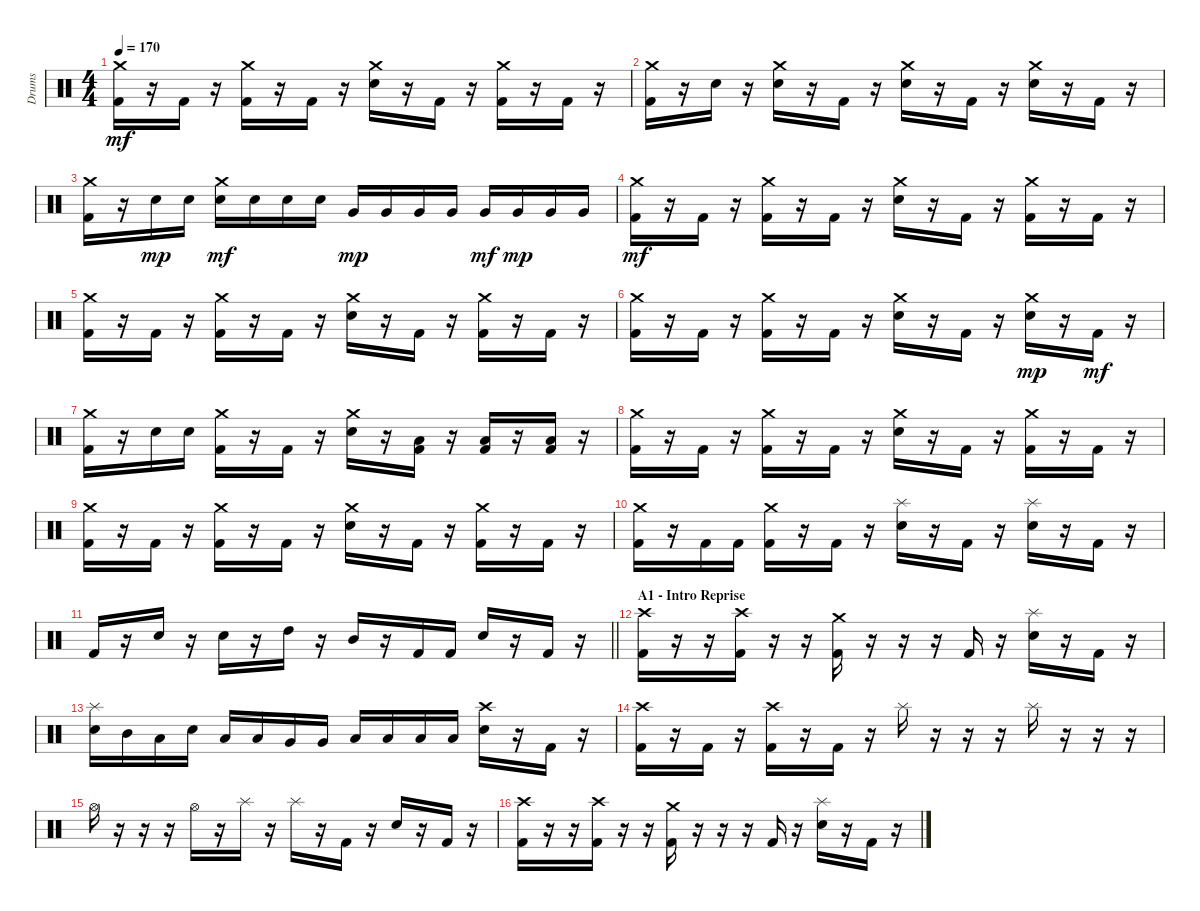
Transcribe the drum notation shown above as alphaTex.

\track ("Drums" "Drums") {instrument percussion}
\staff {score}
\articulation defaults
\ts (4 4)
\tempo 170
\clef neutral
\ks c
("Crash medium (hit)" "Kick (hit) 2").16{dy mf} r.16 "Kick (hit) 2".16 r.16 ("Crash medium (hit)" "Kick (hit) 2").16 r.16 "Kick (hit) 2".16 r.16 ("Crash medium (hit)" "Electric Snare (hit)").16 r.16 "Kick (hit) 2".16 r.16 ("Crash medium (hit)" "Kick (hit) 2").16 r.16 "Kick (hit) 2".16 r.16 |
("Crash medium (hit)" "Kick (hit) 2").16 r.16 "Electric Snare (hit)".16 r.16 ("Crash medium (hit)" "Electric Snare (hit)").16 r.16 "Kick (hit) 2".16 r.16 ("Crash medium (hit)" "Electric Snare (hit)").16 r.16 "Kick (hit) 2".16 r.16 ("Crash medium (hit)" "Electric Snare (hit)").16 r.16 "Kick (hit) 2".16 r.16 |
("Crash medium (hit)" "Kick (hit) 2").16 r.16 "Electric Snare (hit)".16{dy mp} "Electric Snare (hit)".16 ("Crash medium (hit)" "Electric Snare (hit)").16{dy mf} "Electric Snare (hit)".16 "Electric Snare (hit)".16 "Electric Snare (hit)".16 "Very Low Tom (hit)".16{dy mp} "Very Low Tom (hit)".16 "Very Low Tom (hit)".16 "Very Low Tom (hit)".16 "Very Low Tom (hit)".16{dy mf} "Very Low Tom (hit)".16{dy mp} "Very Low Tom (hit)".16 "Very Low Tom (hit)".16 |
("Crash medium (hit)" "Kick (hit) 2").16{dy mf} r.16 "Kick (hit) 2".16 r.16 ("Crash medium (hit)" "Kick (hit) 2").16 r.16 "Kick (hit) 2".16 r.16 ("Crash medium (hit)" "Electric Snare (hit)").16 r.16 "Kick (hit) 2".16 r.16 ("Crash medium (hit)" "Kick (hit) 2").16 r.16 "Kick (hit) 2".16 r.16 |
("Crash medium (hit)" "Kick (hit) 2").16 r.16 "Kick (hit) 2".16 r.16 ("Crash medium (hit)" "Kick (hit) 2").16 r.16 "Kick (hit) 2".16 r.16 ("Crash medium (hit)" "Electric Snare (hit)").16 r.16 "Kick (hit) 2".16 r.16 ("Crash medium (hit)" "Kick (hit) 2").16 r.16 "Kick (hit) 2".16 r.16 |
("Crash medium (hit)" "Kick (hit) 2").16 r.16 "Kick (hit) 2".16 r.16 ("Crash medium (hit)" "Kick (hit) 2").16 r.16 "Kick (hit) 2".16 r.16 ("Crash medium (hit)" "Electric Snare (hit)").16 r.16 "Kick (hit) 2".16 r.16 ("Crash medium (hit)" "Electric Snare (hit)").16{dy mp} r.16 "Kick (hit) 2".16{dy mf} r.16 |
("Crash medium (hit)" "Kick (hit) 2").16 r.16 "Electric Snare (hit)".16 "Electric Snare (hit)".16 ("Crash medium (hit)" "Kick (hit) 2").16 r.16 "Kick (hit) 2".16 r.16 ("Crash medium (hit)" "Electric Snare (hit)").16 r.16 ("Low Floor Tom (hit)" "Kick (hit) 2").16 r.16 ("Low Floor Tom (hit)" "Kick (hit) 2").16 r.16 ("Low Floor Tom (hit)" "Kick (hit) 2").16 r.16 |
("Crash medium (hit)" "Kick (hit) 2").16 r.16 "Kick (hit) 2".16 r.16 ("Crash medium (hit)" "Kick (hit) 2").16 r.16 "Kick (hit) 2".16 r.16 ("Crash medium (hit)" "Electric Snare (hit)").16 r.16 "Kick (hit) 2".16 r.16 ("Crash medium (hit)" "Kick (hit) 2").16 r.16 "Kick (hit) 2".16 r.16 |
("Crash medium (hit)" "Kick (hit) 2").16 r.16 "Kick (hit) 2".16 r.16 ("Crash medium (hit)" "Kick (hit) 2").16 r.16 "Kick (hit) 2".16 r.16 ("Crash medium (hit)" "Electric Snare (hit)").16 r.16 "Kick (hit) 2".16 r.16 ("Crash medium (hit)" "Kick (hit) 2").16 r.16 "Kick (hit) 2".16 r.16 |
("Crash medium (hit)" "Kick (hit) 2").16 r.16 "Kick (hit) 2".16 "Kick (hit) 2".16 ("Crash medium (hit)" "Kick (hit) 2").16 r.16 "Kick (hit) 2".16 r.16 ("Splash (hit)" "Electric Snare (hit)").16 r.16 "Kick (hit) 2".16 r.16 ("Splash (hit)" "Electric Snare (hit)").16 r.16 "Kick (hit) 2".16 r.16 |
\barLineRight lightlight "Kick (hit) 2".16
r.16 "Electric Snare (hit)".16 r.16 "Electric Snare (hit)".16 r.16 "High Tom (hit)".16 r.16 "Mid Tom (hit)".16 r.16 "Kick (hit) 2".16 "Kick (hit) 2".16 "Electric Snare (hit)".16 r.16 "Kick (hit) 2".16 r.16 |
\section ("" "A1 - Intro Reprise")
("Crash high (hit)" "Kick (hit) 2").16 r.16 r.16 ("Crash high (hit)" "Kick (hit) 2").16 r.16 r.16 ("Crash medium (hit)" "Kick (hit) 2").16 r.16 r.16 r.16 "Kick (hit) 2".16 r.16 ("Splash (hit)" "Electric Snare (hit)").16 r.16 "Kick (hit) 2".16 r.16 |
("Splash (hit)" "Electric Snare (hit)").16 "Mid Tom (hit)".16 "Low Tom (hit)".16 "Electric Snare (hit)".16 "Low Tom (hit)".16 "Low Tom (hit)".16 "Very Low Tom (hit)".16 "Very Low Tom (hit)".16 "Low Floor Tom (hit)".16 "Low Floor Tom (hit)".16 "Low Floor Tom (hit)".16 "Low Floor Tom (hit)".16 ("Crash high (hit)" "Electric Snare (hit)").16 r.16 "Kick (hit) 2".16 r.16 |
("Crash high (hit)" "Kick (hit) 2").16 r.16 "Kick (hit) 2".16 r.16 ("Crash high (hit)" "Kick (hit) 2").16 r.16 "Kick (hit) 2".16 r.16 "Splash (hit)".16 r.16 r.16 r.16 "Splash (hit)".16 r.16 r.16 r.16 |
"Hi-Hat (open)".16 r.16 r.16 r.16 "Hi-Hat (open)".16 r.16 "Splash (hit)".16 r.16 "Splash (hit)".16 r.16 "Kick (hit) 2".16 r.16 "Electric Snare (hit)".16 r.16 "Kick (hit) 2".16 r.16 |
("Crash high (hit)" "Kick (hit) 2").16 r.16 r.16 ("Crash high (hit)" "Kick (hit) 2").16 r.16 r.16 ("Crash medium (hit)" "Kick (hit) 2").16 r.16 r.16 r.16 "Kick (hit) 2".16 r.16 ("Splash (hit)" "Electric Snare (hit)").16 r.16 "Kick (hit) 2".16 r.16
